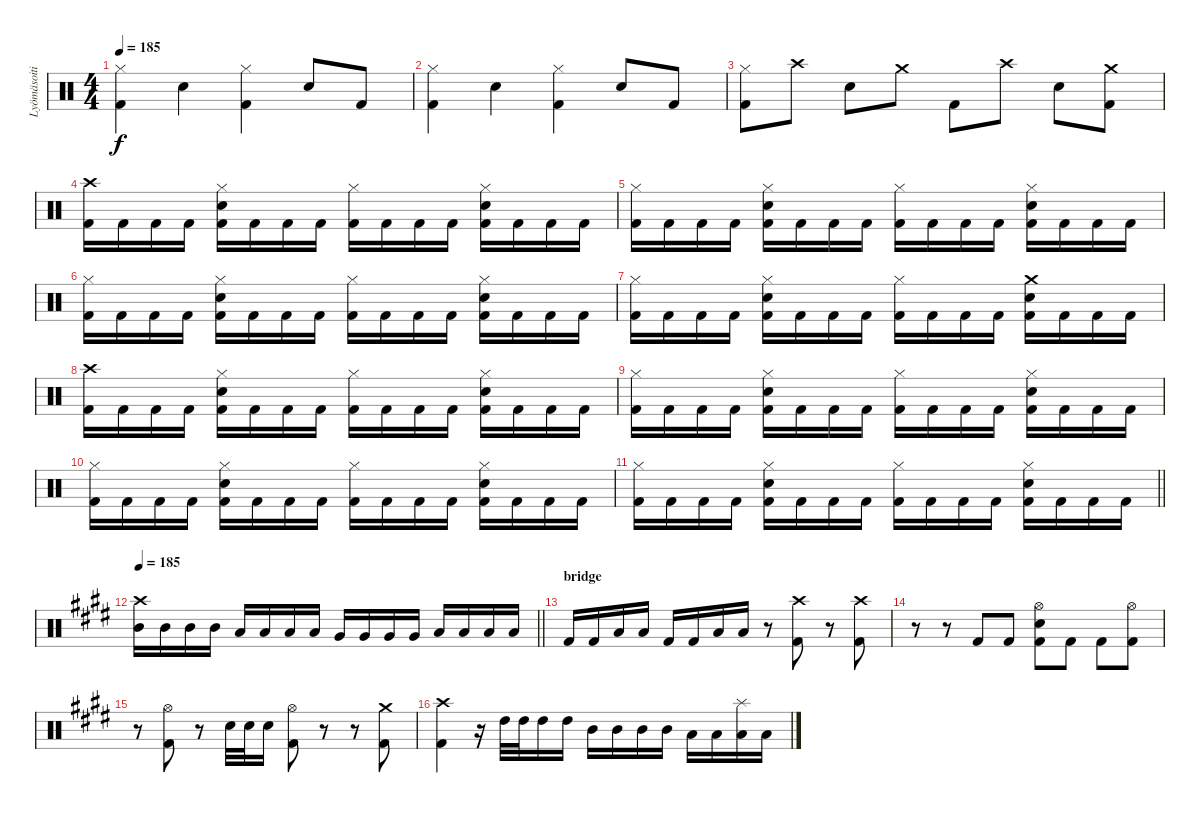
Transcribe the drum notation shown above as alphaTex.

\track ("Lyömäsoitin" "Lyömäsoiti") {instrument percussion}
\staff {score}
\articulation defaults
\ts (4 4)
\tempo 185
\clef neutral
\ks c
("Hi-Hat (closed)" "Kick (hit) 2").4{dy f} "Electric Snare (hit)".4 ("Hi-Hat (closed)" "Kick (hit) 2").4 "Electric Snare (hit)".8 "Kick (hit) 2".8 |
("Hi-Hat (closed)" "Kick (hit) 2").4 "Electric Snare (hit)".4 ("Hi-Hat (closed)" "Kick (hit) 2").4 "Electric Snare (hit)".8 "Kick (hit) 2".8 |
("Hi-Hat (closed)" "Kick (hit) 2").8 "Crash high (hit)".8 "Electric Snare (hit)".8 "Crash medium (hit)".8 "Kick (hit) 2".8 "Crash high (hit)".8 "Electric Snare (hit)".8 ("Crash medium (hit)" "Kick (hit) 2").8 |
("Crash high (hit)" "Kick (hit) 2").16 "Kick (hit) 2".16 "Kick (hit) 2".16 "Kick (hit) 2".16 ("Hi-Hat (closed)" "Electric Snare (hit)" "Kick (hit) 2").16 "Kick (hit) 2".16 "Kick (hit) 2".16 "Kick (hit) 2".16 ("Hi-Hat (closed)" "Kick (hit) 2").16 "Kick (hit) 2".16 "Kick (hit) 2".16 "Kick (hit) 2".16 ("Hi-Hat (closed)" "Electric Snare (hit)" "Kick (hit) 2").16 "Kick (hit) 2".16 "Kick (hit) 2".16 "Kick (hit) 2".16 |
("Hi-Hat (closed)" "Kick (hit) 2").16 "Kick (hit) 2".16 "Kick (hit) 2".16 "Kick (hit) 2".16 ("Hi-Hat (closed)" "Electric Snare (hit)" "Kick (hit) 2").16 "Kick (hit) 2".16 "Kick (hit) 2".16 "Kick (hit) 2".16 ("Hi-Hat (closed)" "Kick (hit) 2").16 "Kick (hit) 2".16 "Kick (hit) 2".16 "Kick (hit) 2".16 ("Hi-Hat (closed)" "Electric Snare (hit)" "Kick (hit) 2").16 "Kick (hit) 2".16 "Kick (hit) 2".16 "Kick (hit) 2".16 |
("Hi-Hat (closed)" "Kick (hit) 2").16 "Kick (hit) 2".16 "Kick (hit) 2".16 "Kick (hit) 2".16 ("Hi-Hat (closed)" "Electric Snare (hit)" "Kick (hit) 2").16 "Kick (hit) 2".16 "Kick (hit) 2".16 "Kick (hit) 2".16 ("Hi-Hat (closed)" "Kick (hit) 2").16 "Kick (hit) 2".16 "Kick (hit) 2".16 "Kick (hit) 2".16 ("Hi-Hat (closed)" "Electric Snare (hit)" "Kick (hit) 2").16 "Kick (hit) 2".16 "Kick (hit) 2".16 "Kick (hit) 2".16 |
("Hi-Hat (closed)" "Kick (hit) 2").16 "Kick (hit) 2".16 "Kick (hit) 2".16 "Kick (hit) 2".16 ("Hi-Hat (closed)" "Electric Snare (hit)" "Kick (hit) 2").16 "Kick (hit) 2".16 "Kick (hit) 2".16 "Kick (hit) 2".16 ("Hi-Hat (closed)" "Kick (hit) 2").16 "Kick (hit) 2".16 "Kick (hit) 2".16 "Kick (hit) 2".16 ("Crash medium (hit)" "Electric Snare (hit)" "Kick (hit) 2").16 "Kick (hit) 2".16 "Kick (hit) 2".16 "Kick (hit) 2".16 |
("Crash high (hit)" "Kick (hit) 2").16 "Kick (hit) 2".16 "Kick (hit) 2".16 "Kick (hit) 2".16 ("Hi-Hat (closed)" "Electric Snare (hit)" "Kick (hit) 2").16 "Kick (hit) 2".16 "Kick (hit) 2".16 "Kick (hit) 2".16 ("Hi-Hat (closed)" "Kick (hit) 2").16 "Kick (hit) 2".16 "Kick (hit) 2".16 "Kick (hit) 2".16 ("Hi-Hat (closed)" "Electric Snare (hit)" "Kick (hit) 2").16 "Kick (hit) 2".16 "Kick (hit) 2".16 "Kick (hit) 2".16 |
("Hi-Hat (closed)" "Kick (hit) 2").16 "Kick (hit) 2".16 "Kick (hit) 2".16 "Kick (hit) 2".16 ("Hi-Hat (closed)" "Electric Snare (hit)" "Kick (hit) 2").16 "Kick (hit) 2".16 "Kick (hit) 2".16 "Kick (hit) 2".16 ("Hi-Hat (closed)" "Kick (hit) 2").16 "Kick (hit) 2".16 "Kick (hit) 2".16 "Kick (hit) 2".16 ("Hi-Hat (closed)" "Electric Snare (hit)" "Kick (hit) 2").16 "Kick (hit) 2".16 "Kick (hit) 2".16 "Kick (hit) 2".16 |
("Hi-Hat (closed)" "Kick (hit) 2").16 "Kick (hit) 2".16 "Kick (hit) 2".16 "Kick (hit) 2".16 ("Hi-Hat (closed)" "Electric Snare (hit)" "Kick (hit) 2").16 "Kick (hit) 2".16 "Kick (hit) 2".16 "Kick (hit) 2".16 ("Hi-Hat (closed)" "Kick (hit) 2").16 "Kick (hit) 2".16 "Kick (hit) 2".16 "Kick (hit) 2".16 ("Hi-Hat (closed)" "Electric Snare (hit)" "Kick (hit) 2").16 "Kick (hit) 2".16 "Kick (hit) 2".16 "Kick (hit) 2".16 |
\barLineRight lightlight
("Hi-Hat (closed)" "Kick (hit) 2").16 "Kick (hit) 2".16 "Kick (hit) 2".16 "Kick (hit) 2".16 ("Hi-Hat (closed)" "Electric Snare (hit)" "Kick (hit) 2").16 "Kick (hit) 2".16 "Kick (hit) 2".16 "Kick (hit) 2".16 ("Hi-Hat (closed)" "Kick (hit) 2").16 "Kick (hit) 2".16 "Kick (hit) 2".16 "Kick (hit) 2".16 ("Hi-Hat (closed)" "Electric Snare (hit)" "Kick (hit) 2").16 "Kick (hit) 2".16 "Kick (hit) 2".16 "Kick (hit) 2".16 |
\tempo 185
\barLineRight lightlight
\ks e
("Crash high (hit)" "Mid Tom (hit)").16 "Mid Tom (hit)".16 "Mid Tom (hit)".16 "Mid Tom (hit)".16 "Low Tom (hit)".16 "Low Tom (hit)".16 "Low Tom (hit)".16 "Low Tom (hit)".16 "Very Low Tom (hit)".16 "Very Low Tom (hit)".16 "Very Low Tom (hit)".16 "Very Low Tom (hit)".16 "Low Floor Tom (hit)".16 "Low Floor Tom (hit)".16 "Low Floor Tom (hit)".16 "Low Floor Tom (hit)".16 |
\section ("" "bridge")
"Kick (hit) 2".16 "Kick (hit) 2".16 "Low Floor Tom (hit)".16 "Low Floor Tom (hit)".16 "Kick (hit) 2".16 "Kick (hit) 2".16 "Low Floor Tom (hit)".16 "Low Floor Tom (hit)".16 r.8 ("Crash high (hit)" "Kick (hit) 2").8 r.8 ("Crash high (hit)" "Kick (hit) 2").8 |
r.8 r.8 "Kick (hit) 2".8 "Kick (hit) 2".8 ("Hi-Hat (open)" "Electric Snare (hit)" "Kick (hit) 2").8 "Kick (hit) 2".8 "Kick (hit) 2".8 ("Hi-Hat (open)" "Kick (hit) 2").8 |
r.8 ("Hi-Hat (open)" "Kick (hit) 2").8 r.8 "Electric Snare (hit)".32 "Electric Snare (hit)".32 "Electric Snare (hit)".16 ("Hi-Hat (open)" "Kick (hit) 2").8 r.8 r.8 ("Crash medium (hit)" "Kick (hit) 2").8 |
("Crash high (hit)" "Kick (hit) 2").4 r.16 "High Tom (hit)".32 "High Tom (hit)".32 "High Tom (hit)".16 "High Tom (hit)".16 "Mid Tom (hit)".16 "Mid Tom (hit)".16 "Mid Tom (hit)".16 "Mid Tom (hit)".16 "Low Tom (hit)".16 "Low Tom (hit)".16 ("Splash (hit)" "Low Tom (hit)").16 "Low Tom (hit)".16
